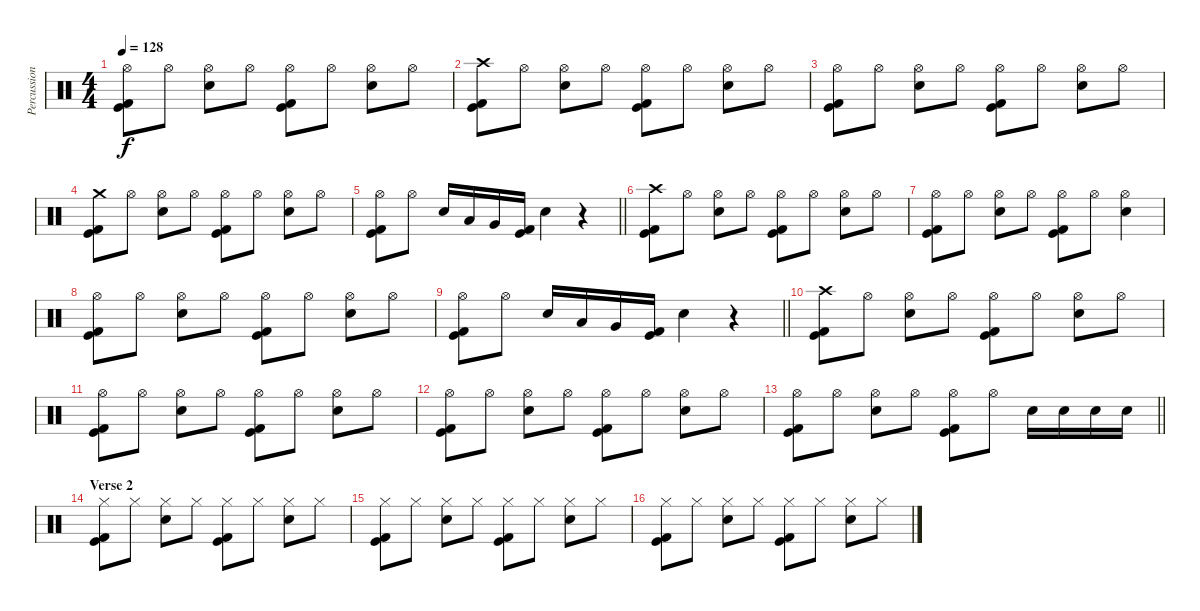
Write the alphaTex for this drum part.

\track ("Percussion" "Percussion") {instrument percussion}
\staff {score}
\articulation defaults
\ts (4 4)
\tempo 128
\clef neutral
\ks c
("Hi-Hat (open)" "Kick (hit)" "Kick (hit) 2").8{dy f} "Hi-Hat (open)".8 ("Hi-Hat (open)" "Electric Snare (hit)").8 "Hi-Hat (open)".8 ("Hi-Hat (open)" "Kick (hit)" "Kick (hit) 2").8 "Hi-Hat (open)".8 ("Hi-Hat (open)" "Electric Snare (hit)").8 "Hi-Hat (open)".8 |
("Crash high (hit)" "Kick (hit)" "Kick (hit) 2").8 "Hi-Hat (open)".8 ("Hi-Hat (open)" "Electric Snare (hit)").8 "Hi-Hat (open)".8 ("Hi-Hat (open)" "Kick (hit)" "Kick (hit) 2").8 "Hi-Hat (open)".8 ("Hi-Hat (open)" "Electric Snare (hit)").8 "Hi-Hat (open)".8 |
("Hi-Hat (open)" "Kick (hit)" "Kick (hit) 2").8 "Hi-Hat (open)".8 ("Hi-Hat (open)" "Electric Snare (hit)").8 "Hi-Hat (open)".8 ("Hi-Hat (open)" "Kick (hit)" "Kick (hit) 2").8 "Hi-Hat (open)".8 ("Hi-Hat (open)" "Electric Snare (hit)").8 "Hi-Hat (open)".8 |
("Crash medium (hit)" "Kick (hit)" "Kick (hit) 2").8 "Hi-Hat (open)".8 ("Hi-Hat (open)" "Electric Snare (hit)").8 "Hi-Hat (open)".8 ("Hi-Hat (open)" "Kick (hit)" "Kick (hit) 2").8 "Hi-Hat (open)".8 ("Hi-Hat (open)" "Electric Snare (hit)").8 "Hi-Hat (open)".8 |
\barLineRight lightlight
("Hi-Hat (open)" "Kick (hit)" "Kick (hit) 2").8 "Hi-Hat (open)".8 "Electric Snare (hit)".16 "Low Tom (hit)".16 "Very Low Tom (hit)".16 ("Kick (hit)" "Kick (hit) 2").16 "Electric Snare (hit)".4 r.4 |
\section ("" "")
("Crash high (hit)" "Kick (hit)" "Kick (hit) 2").8 "Hi-Hat (open)".8 ("Hi-Hat (open)" "Electric Snare (hit)").8 "Hi-Hat (open)".8 ("Hi-Hat (open)" "Kick (hit)" "Kick (hit) 2").8 "Hi-Hat (open)".8 ("Hi-Hat (open)" "Electric Snare (hit)").8 "Hi-Hat (open)".8 |
("Hi-Hat (open)" "Kick (hit)" "Kick (hit) 2").8 "Hi-Hat (open)".8 ("Hi-Hat (open)" "Electric Snare (hit)").8 "Hi-Hat (open)".8 ("Hi-Hat (open)" "Kick (hit)" "Kick (hit) 2").8 "Hi-Hat (open)".8 ("Hi-Hat (open)" "Electric Snare (hit)").4 |
("Hi-Hat (open)" "Kick (hit)" "Kick (hit) 2").8 "Hi-Hat (open)".8 ("Hi-Hat (open)" "Electric Snare (hit)").8 "Hi-Hat (open)".8 ("Hi-Hat (open)" "Kick (hit)" "Kick (hit) 2").8 "Hi-Hat (open)".8 ("Hi-Hat (open)" "Electric Snare (hit)").8 "Hi-Hat (open)".8 |
\barLineRight lightlight
("Hi-Hat (open)" "Kick (hit)" "Kick (hit) 2").8 "Hi-Hat (open)".8 "Electric Snare (hit)".16 "Low Tom (hit)".16 "Very Low Tom (hit)".16 ("Kick (hit)" "Kick (hit) 2").16 "Electric Snare (hit)".4 r.4 |
\section ("" "")
("Crash high (hit)" "Kick (hit)" "Kick (hit) 2").8 "Hi-Hat (open)".8 ("Hi-Hat (open)" "Electric Snare (hit)").8 "Hi-Hat (open)".8 ("Hi-Hat (open)" "Kick (hit)" "Kick (hit) 2").8 "Hi-Hat (open)".8 ("Hi-Hat (open)" "Electric Snare (hit)").8 "Hi-Hat (open)".8 |
("Hi-Hat (open)" "Kick (hit)" "Kick (hit) 2").8 "Hi-Hat (open)".8 ("Hi-Hat (open)" "Electric Snare (hit)").8 "Hi-Hat (open)".8 ("Hi-Hat (open)" "Kick (hit)" "Kick (hit) 2").8 "Hi-Hat (open)".8 ("Hi-Hat (open)" "Electric Snare (hit)").8 "Hi-Hat (open)".8 |
("Hi-Hat (open)" "Kick (hit)" "Kick (hit) 2").8 "Hi-Hat (open)".8 ("Hi-Hat (open)" "Electric Snare (hit)").8 "Hi-Hat (open)".8 ("Hi-Hat (open)" "Kick (hit)" "Kick (hit) 2").8 "Hi-Hat (open)".8 ("Hi-Hat (open)" "Electric Snare (hit)").8 "Hi-Hat (open)".8 |
\barLineRight lightlight
("Hi-Hat (open)" "Kick (hit)" "Kick (hit) 2").8 "Hi-Hat (open)".8 ("Hi-Hat (open)" "Electric Snare (hit)").8 "Hi-Hat (open)".8 ("Hi-Hat (open)" "Kick (hit)" "Kick (hit) 2").8 "Hi-Hat (open)".8 "Electric Snare (hit)".16 "Electric Snare (hit)".16 "Electric Snare (hit)".16 "Electric Snare (hit)".16 |
\section ("" "Verse 2")
("Hi-Hat (closed)" "Kick (hit)" "Kick (hit) 2").8 "Hi-Hat (closed)".8 ("Hi-Hat (closed)" "Electric Snare (hit)").8 "Hi-Hat (closed)".8 ("Hi-Hat (closed)" "Kick (hit)" "Kick (hit) 2").8 "Hi-Hat (closed)".8 ("Hi-Hat (closed)" "Electric Snare (hit)").8 "Hi-Hat (closed)".8 |
("Hi-Hat (closed)" "Kick (hit)" "Kick (hit) 2").8 "Hi-Hat (closed)".8 ("Hi-Hat (closed)" "Electric Snare (hit)").8 "Hi-Hat (closed)".8 ("Hi-Hat (closed)" "Kick (hit)" "Kick (hit) 2").8 "Hi-Hat (closed)".8 ("Hi-Hat (closed)" "Electric Snare (hit)").8 "Hi-Hat (closed)".8 |
("Hi-Hat (closed)" "Kick (hit)" "Kick (hit) 2").8 "Hi-Hat (closed)".8 ("Hi-Hat (closed)" "Electric Snare (hit)").8 "Hi-Hat (closed)".8 ("Hi-Hat (closed)" "Kick (hit)" "Kick (hit) 2").8 "Hi-Hat (closed)".8 ("Hi-Hat (closed)" "Electric Snare (hit)").8 "Hi-Hat (closed)".8
